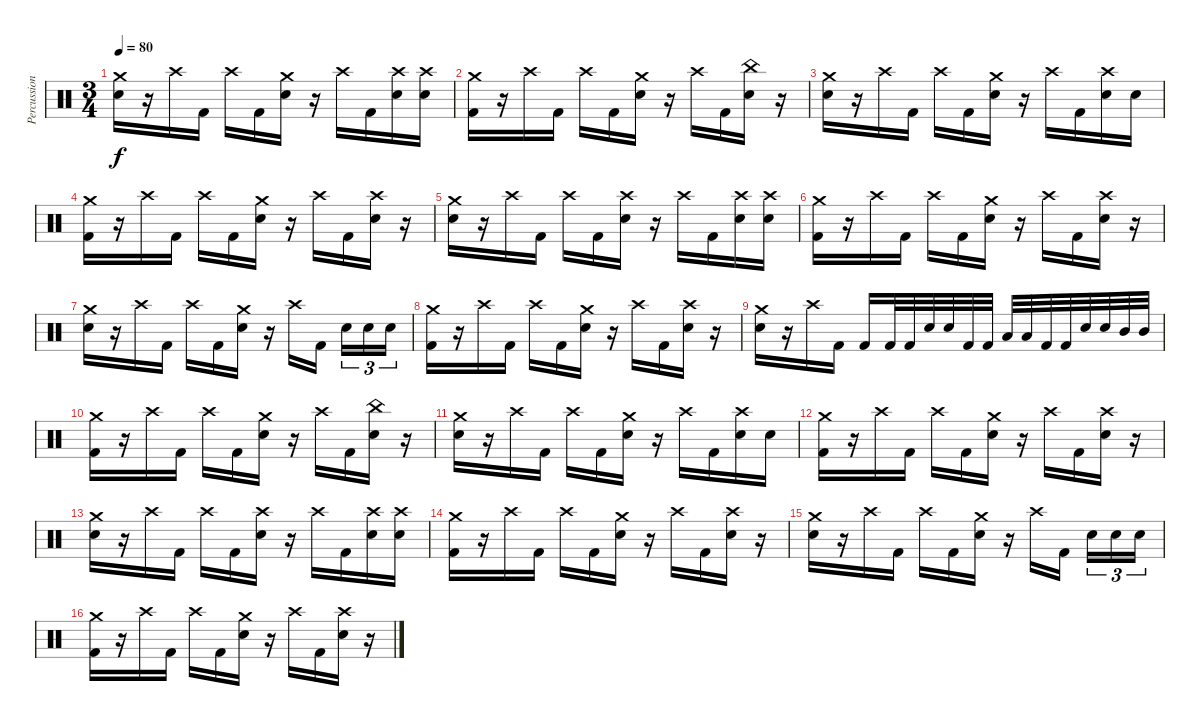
\track ("Percussion" "Percussion") {instrument percussion}
\staff {score}
\articulation defaults
\ts (3 4)
\tempo 80
\clef neutral
\ks c
("Crash medium (hit)" "Electric Snare (hit)").16{dy f} r.16 "Crash high (hit)".16 "Kick (hit) 2".16 "Crash high (hit)".16 "Kick (hit) 2".16 ("Crash medium (hit)" "Electric Snare (hit)").16 r.16 "Crash high (hit)".16 "Kick (hit) 2".16 ("Crash high (hit)" "Electric Snare (hit)").16 ("Crash high (hit)" "Electric Snare (hit)").16 |
("Crash medium (hit)" "Kick (hit) 2").16 r.16 "Crash high (hit)".16 "Kick (hit) 2".16 "Crash high (hit)".16 "Kick (hit) 2".16 ("Crash medium (hit)" "Electric Snare (hit)").16 r.16 "Crash high (hit)".16 "Kick (hit) 2".16 ("China (hit)" "Electric Snare (hit)").16 r.16 |
("Crash medium (hit)" "Electric Snare (hit)").16 r.16 "Crash high (hit)".16 "Kick (hit) 2".16 "Crash high (hit)".16 "Kick (hit) 2".16 ("Crash medium (hit)" "Electric Snare (hit)").16 r.16 "Crash high (hit)".16 "Kick (hit) 2".16 ("Crash high (hit)" "Electric Snare (hit)").16 "Electric Snare (hit)".16 |
("Crash medium (hit)" "Kick (hit) 2").16 r.16 "Crash high (hit)".16 "Kick (hit) 2".16 "Crash high (hit)".16 "Kick (hit) 2".16 ("Crash medium (hit)" "Electric Snare (hit)").16 r.16 "Crash high (hit)".16 "Kick (hit) 2".16 ("Crash high (hit)" "Electric Snare (hit)").16 r.16 |
("Crash medium (hit)" "Electric Snare (hit)").16 r.16 "Crash high (hit)".16 "Kick (hit) 2".16 "Crash high (hit)".16 "Kick (hit) 2".16 ("Crash high (hit)" "Electric Snare (hit)").16 r.16 "Crash high (hit)".16 "Kick (hit) 2".16 ("Crash high (hit)" "Electric Snare (hit)").16 ("Crash high (hit)" "Electric Snare (hit)").16 |
("Crash medium (hit)" "Kick (hit) 2").16 r.16 "Crash high (hit)".16 "Kick (hit) 2".16 "Crash high (hit)".16 "Kick (hit) 2".16 ("Crash medium (hit)" "Electric Snare (hit)").16 r.16 "Crash high (hit)".16 "Kick (hit) 2".16 ("Crash high (hit)" "Electric Snare (hit)").16 r.16 |
("Crash medium (hit)" "Electric Snare (hit)").16 r.16 "Crash high (hit)".16 "Kick (hit) 2".16 "Crash high (hit)".16 "Kick (hit) 2".16 ("Crash medium (hit)" "Electric Snare (hit)").16 r.16 "Crash high (hit)".16 "Kick (hit) 2".16{beam splitsecondary} "Electric Snare (hit)".16{tu (3 2)} "Electric Snare (hit)".16{tu (3 2)} "Electric Snare (hit)".16{tu (3 2)} |
("Crash medium (hit)" "Kick (hit) 2").16 r.16 "Crash high (hit)".16 "Kick (hit) 2".16 "Crash high (hit)".16 "Kick (hit) 2".16 ("Crash medium (hit)" "Electric Snare (hit)").16 r.16 "Crash high (hit)".16 "Kick (hit) 2".16 ("Crash high (hit)" "Electric Snare (hit)").16 r.16 |
("Crash medium (hit)" "Electric Snare (hit)").16 r.16 "Crash high (hit)".16 "Kick (hit) 2".16 "Kick (hit) 2".16 "Kick (hit) 2".32 "Kick (hit) 2".32 "Electric Snare (hit)".32 "Electric Snare (hit)".32 "Kick (hit) 2".32 "Kick (hit) 2".32 "Low Tom (hit)".32 "Low Tom (hit)".32 "Kick (hit) 2".32 "Kick (hit) 2".32 "Electric Snare (hit)".32 "Electric Snare (hit)".32 "Mid Tom (hit)".32 "Mid Tom (hit)".32 |
("Crash medium (hit)" "Kick (hit) 2").16 r.16 "Crash high (hit)".16 "Kick (hit) 2".16 "Crash high (hit)".16 "Kick (hit) 2".16 ("Crash medium (hit)" "Electric Snare (hit)").16 r.16 "Crash high (hit)".16 "Kick (hit) 2".16 ("China (hit)" "Electric Snare (hit)").16 r.16 |
("Crash medium (hit)" "Electric Snare (hit)").16 r.16 "Crash high (hit)".16 "Kick (hit) 2".16 "Crash high (hit)".16 "Kick (hit) 2".16 ("Crash medium (hit)" "Electric Snare (hit)").16 r.16 "Crash high (hit)".16 "Kick (hit) 2".16 ("Crash high (hit)" "Electric Snare (hit)").16 "Electric Snare (hit)".16 |
("Crash medium (hit)" "Kick (hit) 2").16 r.16 "Crash high (hit)".16 "Kick (hit) 2".16 "Crash high (hit)".16 "Kick (hit) 2".16 ("Crash medium (hit)" "Electric Snare (hit)").16 r.16 "Crash high (hit)".16 "Kick (hit) 2".16 ("Crash high (hit)" "Electric Snare (hit)").16 r.16 |
("Crash medium (hit)" "Electric Snare (hit)").16 r.16 "Crash high (hit)".16 "Kick (hit) 2".16 "Crash high (hit)".16 "Kick (hit) 2".16 ("Crash high (hit)" "Electric Snare (hit)").16 r.16 "Crash high (hit)".16 "Kick (hit) 2".16 ("Crash high (hit)" "Electric Snare (hit)").16 ("Crash high (hit)" "Electric Snare (hit)").16 |
("Crash medium (hit)" "Kick (hit) 2").16 r.16 "Crash high (hit)".16 "Kick (hit) 2".16 "Crash high (hit)".16 "Kick (hit) 2".16 ("Crash medium (hit)" "Electric Snare (hit)").16 r.16 "Crash high (hit)".16 "Kick (hit) 2".16 ("Crash high (hit)" "Electric Snare (hit)").16 r.16 |
("Crash medium (hit)" "Electric Snare (hit)").16 r.16 "Crash high (hit)".16 "Kick (hit) 2".16 "Crash high (hit)".16 "Kick (hit) 2".16 ("Crash medium (hit)" "Electric Snare (hit)").16 r.16 "Crash high (hit)".16 "Kick (hit) 2".16{beam splitsecondary} "Electric Snare (hit)".16{tu (3 2)} "Electric Snare (hit)".16{tu (3 2)} "Electric Snare (hit)".16{tu (3 2)} |
("Crash medium (hit)" "Kick (hit) 2").16 r.16 "Crash high (hit)".16 "Kick (hit) 2".16 "Crash high (hit)".16 "Kick (hit) 2".16 ("Crash medium (hit)" "Electric Snare (hit)").16 r.16 "Crash high (hit)".16 "Kick (hit) 2".16 ("Crash high (hit)" "Electric Snare (hit)").16 r.16
